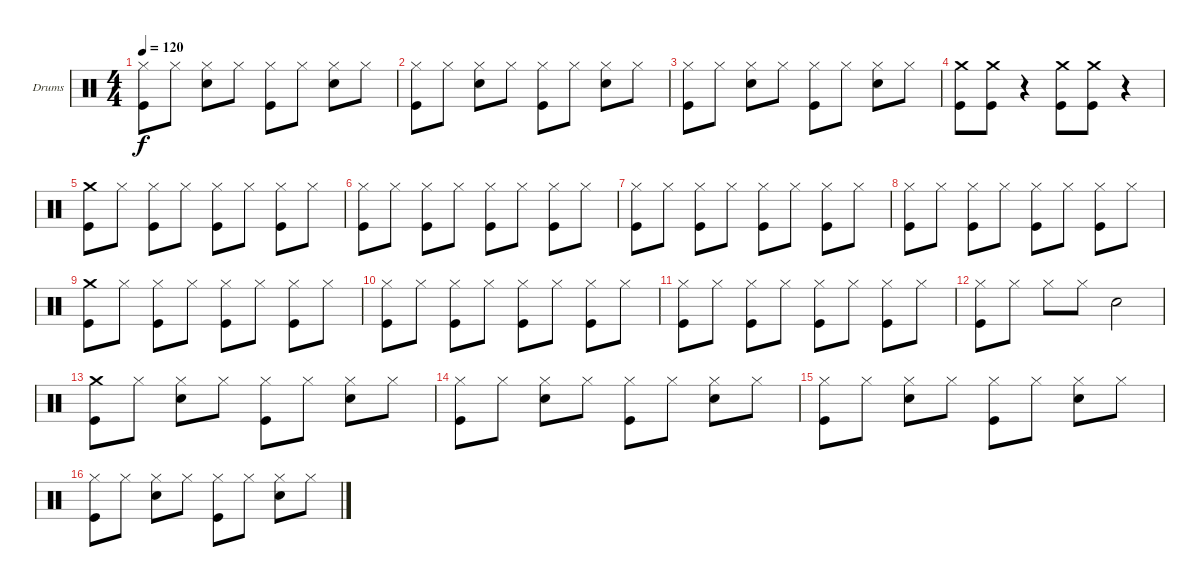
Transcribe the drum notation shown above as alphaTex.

\bracketExtendMode groupsimilarinstruments
\firstSystemTrackNameOrientation horizontal
\otherSystemsTrackNameOrientation horizontal
\track ("Drumkit" "Drums") {instrument percussion}
\staff {score}
\articulation defaults
\ts (4 4)
\tempo 120
\clef neutral
\ks c
("Hi-Hat (closed)" "Kick (hit)").8{dy f} "Hi-Hat (closed)".8 ("Hi-Hat (closed)" "Snare (hit) 2").8 "Hi-Hat (closed)".8 ("Hi-Hat (closed)" "Kick (hit)").8 "Hi-Hat (closed)".8 ("Hi-Hat (closed)" "Snare (hit) 2").8 "Hi-Hat (closed)".8 |
("Hi-Hat (closed)" "Kick (hit)").8 "Hi-Hat (closed)".8 ("Hi-Hat (closed)" "Snare (hit) 2").8 "Hi-Hat (closed)".8 ("Hi-Hat (closed)" "Kick (hit)").8 "Hi-Hat (closed)".8 ("Hi-Hat (closed)" "Snare (hit) 2").8 "Hi-Hat (closed)".8 |
("Hi-Hat (closed)" "Kick (hit)").8 "Hi-Hat (closed)".8 ("Hi-Hat (closed)" "Snare (hit) 2").8 "Hi-Hat (closed)".8 ("Hi-Hat (closed)" "Kick (hit)").8 "Hi-Hat (closed)".8 ("Hi-Hat (closed)" "Snare (hit) 2").8 "Hi-Hat (closed)".8 |
("Crash medium (hit)" "Kick (hit)").8 ("Crash medium (hit)" "Kick (hit)").8 r.4 ("Crash medium (hit)" "Kick (hit)").8 ("Crash medium (hit)" "Kick (hit)").8 r.4 |
("Crash medium (hit)" "Kick (hit)").8 "Hi-Hat (closed)".8 ("Hi-Hat (closed)" "Kick (hit)").8 "Hi-Hat (closed)".8 ("Hi-Hat (closed)" "Kick (hit)").8 "Hi-Hat (closed)".8 ("Hi-Hat (closed)" "Kick (hit)").8 "Hi-Hat (closed)".8 |
("Hi-Hat (closed)" "Kick (hit)").8 "Hi-Hat (closed)".8 ("Hi-Hat (closed)" "Kick (hit)").8 "Hi-Hat (closed)".8 ("Hi-Hat (closed)" "Kick (hit)").8 "Hi-Hat (closed)".8 ("Hi-Hat (closed)" "Kick (hit)").8 "Hi-Hat (closed)".8 |
("Hi-Hat (closed)" "Kick (hit)").8 "Hi-Hat (closed)".8 ("Hi-Hat (closed)" "Kick (hit)").8 "Hi-Hat (closed)".8 ("Hi-Hat (closed)" "Kick (hit)").8 "Hi-Hat (closed)".8 ("Hi-Hat (closed)" "Kick (hit)").8 "Hi-Hat (closed)".8 |
("Hi-Hat (closed)" "Kick (hit)").8 "Hi-Hat (closed)".8 ("Hi-Hat (closed)" "Kick (hit)").8 "Hi-Hat (closed)".8 ("Hi-Hat (closed)" "Kick (hit)").8 "Hi-Hat (closed)".8 ("Hi-Hat (closed)" "Kick (hit)").8 "Hi-Hat (closed)".8 |
("Crash medium (hit)" "Kick (hit)").8 "Hi-Hat (closed)".8 ("Hi-Hat (closed)" "Kick (hit)").8 "Hi-Hat (closed)".8 ("Hi-Hat (closed)" "Kick (hit)").8 "Hi-Hat (closed)".8 ("Hi-Hat (closed)" "Kick (hit)").8 "Hi-Hat (closed)".8 |
("Hi-Hat (closed)" "Kick (hit)").8 "Hi-Hat (closed)".8 ("Hi-Hat (closed)" "Kick (hit)").8 "Hi-Hat (closed)".8 ("Hi-Hat (closed)" "Kick (hit)").8 "Hi-Hat (closed)".8 ("Hi-Hat (closed)" "Kick (hit)").8 "Hi-Hat (closed)".8 |
("Hi-Hat (closed)" "Kick (hit)").8 "Hi-Hat (closed)".8 ("Hi-Hat (closed)" "Kick (hit)").8 "Hi-Hat (closed)".8 ("Hi-Hat (closed)" "Kick (hit)").8 "Hi-Hat (closed)".8 ("Hi-Hat (closed)" "Kick (hit)").8 "Hi-Hat (closed)".8 |
("Hi-Hat (closed)" "Kick (hit)").8 "Hi-Hat (closed)".8 "Hi-Hat (closed)".8 "Hi-Hat (closed)".8 "Snare (hit) 2".2 |
("Crash medium (hit)" "Kick (hit)").8 "Hi-Hat (closed)".8 ("Hi-Hat (closed)" "Snare (hit) 2").8 "Hi-Hat (closed)".8 ("Hi-Hat (closed)" "Kick (hit)").8 "Hi-Hat (closed)".8 ("Hi-Hat (closed)" "Snare (hit) 2").8 "Hi-Hat (closed)".8 |
("Hi-Hat (closed)" "Kick (hit)").8 "Hi-Hat (closed)".8 ("Hi-Hat (closed)" "Snare (hit) 2").8 "Hi-Hat (closed)".8 ("Hi-Hat (closed)" "Kick (hit)").8 "Hi-Hat (closed)".8 ("Hi-Hat (closed)" "Snare (hit) 2").8 "Hi-Hat (closed)".8 |
("Hi-Hat (closed)" "Kick (hit)").8 "Hi-Hat (closed)".8 ("Hi-Hat (closed)" "Snare (hit) 2").8 "Hi-Hat (closed)".8 ("Hi-Hat (closed)" "Kick (hit)").8 "Hi-Hat (closed)".8 ("Hi-Hat (closed)" "Snare (hit) 2").8 "Hi-Hat (closed)".8 |
("Hi-Hat (closed)" "Kick (hit)").8 "Hi-Hat (closed)".8 ("Hi-Hat (closed)" "Snare (hit) 2").8 "Hi-Hat (closed)".8 ("Hi-Hat (closed)" "Kick (hit)").8 "Hi-Hat (closed)".8 ("Hi-Hat (closed)" "Snare (hit) 2").8 "Hi-Hat (closed)".8
